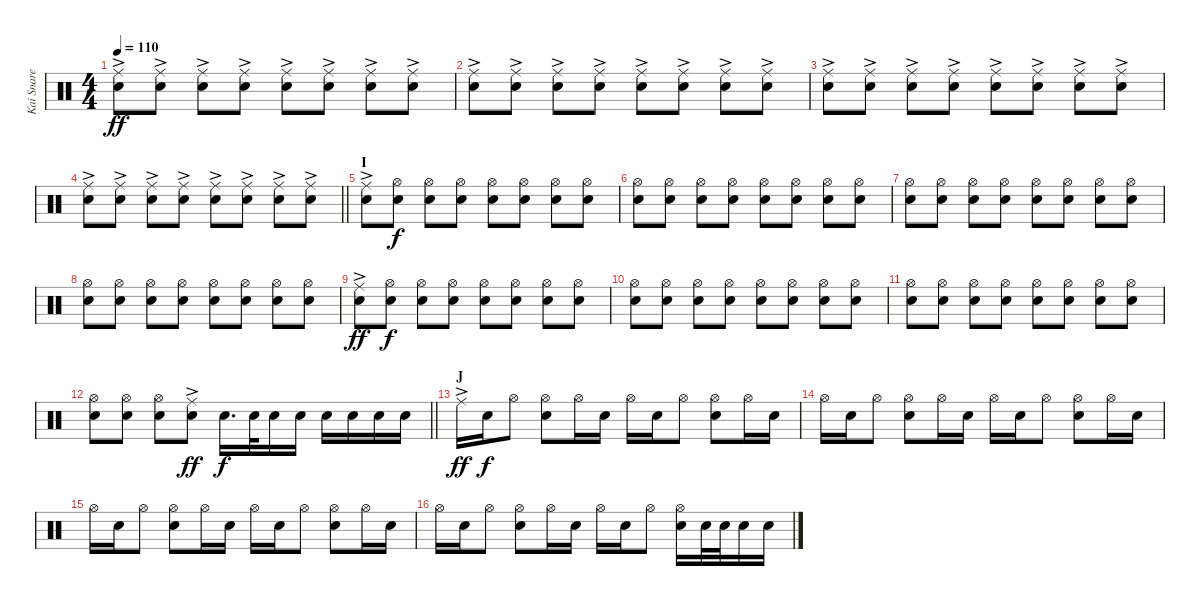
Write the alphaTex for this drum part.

\track ("Kai Snare" "Kai Snare") {instrument percussion}
\staff {score}
\articulation defaults
\ts (4 4)
\tempo 110
\clef neutral
\ks c
("Ride (middle)"{ac} "Snare (hit) 2").8{dy ff} ("Ride (middle)"{ac} "Snare (hit) 2").8 ("Ride (middle)"{ac} "Snare (hit) 2").8 ("Ride (middle)"{ac} "Snare (hit) 2").8 ("Ride (middle)"{ac} "Snare (hit) 2").8 ("Ride (middle)"{ac} "Snare (hit) 2").8 ("Ride (middle)"{ac} "Snare (hit) 2").8 ("Ride (middle)"{ac} "Snare (hit) 2").8 |
("Ride (middle)"{ac} "Snare (hit) 2").8 ("Ride (middle)"{ac} "Snare (hit) 2").8 ("Ride (middle)"{ac} "Snare (hit) 2").8 ("Ride (middle)"{ac} "Snare (hit) 2").8 ("Ride (middle)"{ac} "Snare (hit) 2").8 ("Ride (middle)"{ac} "Snare (hit) 2").8 ("Ride (middle)"{ac} "Snare (hit) 2").8 ("Ride (middle)"{ac} "Snare (hit) 2").8 |
("Ride (middle)"{ac} "Snare (hit) 2").8 ("Ride (middle)"{ac} "Snare (hit) 2").8 ("Ride (middle)"{ac} "Snare (hit) 2").8 ("Ride (middle)"{ac} "Snare (hit) 2").8 ("Ride (middle)"{ac} "Snare (hit) 2").8 ("Ride (middle)"{ac} "Snare (hit) 2").8 ("Ride (middle)"{ac} "Snare (hit) 2").8 ("Ride (middle)"{ac} "Snare (hit) 2").8 |
\barLineRight lightlight
("Ride (middle)"{ac} "Snare (hit) 2").8 ("Ride (middle)"{ac} "Snare (hit) 2").8 ("Ride (middle)"{ac} "Snare (hit) 2").8 ("Ride (middle)"{ac} "Snare (hit) 2").8 ("Ride (middle)"{ac} "Snare (hit) 2").8 ("Ride (middle)"{ac} "Snare (hit) 2").8 ("Ride (middle)"{ac} "Snare (hit) 2").8 ("Ride (middle)"{ac} "Snare (hit) 2").8 |
\section ("" "I")
("Ride (middle)"{ac} "Snare (hit) 2").8 ("Hi-Hat (open)" "Snare (hit) 2").8{dy f} ("Hi-Hat (open)" "Snare (hit) 2").8 ("Hi-Hat (open)" "Snare (hit) 2").8 ("Hi-Hat (open)" "Snare (hit) 2").8 ("Hi-Hat (open)" "Snare (hit) 2").8 ("Hi-Hat (open)" "Snare (hit) 2").8 ("Hi-Hat (open)" "Snare (hit) 2").8 |
("Hi-Hat (open)" "Snare (hit) 2").8 ("Hi-Hat (open)" "Snare (hit) 2").8 ("Hi-Hat (open)" "Snare (hit) 2").8 ("Hi-Hat (open)" "Snare (hit) 2").8 ("Hi-Hat (open)" "Snare (hit) 2").8 ("Hi-Hat (open)" "Snare (hit) 2").8 ("Hi-Hat (open)" "Snare (hit) 2").8 ("Hi-Hat (open)" "Snare (hit) 2").8 |
("Hi-Hat (open)" "Snare (hit) 2").8 ("Hi-Hat (open)" "Snare (hit) 2").8 ("Hi-Hat (open)" "Snare (hit) 2").8 ("Hi-Hat (open)" "Snare (hit) 2").8 ("Hi-Hat (open)" "Snare (hit) 2").8 ("Hi-Hat (open)" "Snare (hit) 2").8 ("Hi-Hat (open)" "Snare (hit) 2").8 ("Hi-Hat (open)" "Snare (hit) 2").8 |
("Hi-Hat (open)" "Snare (hit) 2").8 ("Hi-Hat (open)" "Snare (hit) 2").8 ("Hi-Hat (open)" "Snare (hit) 2").8 ("Hi-Hat (open)" "Snare (hit) 2").8 ("Hi-Hat (open)" "Snare (hit) 2").8 ("Hi-Hat (open)" "Snare (hit) 2").8 ("Hi-Hat (open)" "Snare (hit) 2").8 ("Hi-Hat (open)" "Snare (hit) 2").8 |
("Ride (middle)"{ac} "Snare (hit) 2").8{dy ff} ("Hi-Hat (open)" "Snare (hit) 2").8{dy f} ("Hi-Hat (open)" "Snare (hit) 2").8 ("Hi-Hat (open)" "Snare (hit) 2").8 ("Hi-Hat (open)" "Snare (hit) 2").8 ("Hi-Hat (open)" "Snare (hit) 2").8 ("Hi-Hat (open)" "Snare (hit) 2").8 ("Hi-Hat (open)" "Snare (hit) 2").8 |
("Hi-Hat (open)" "Snare (hit) 2").8 ("Hi-Hat (open)" "Snare (hit) 2").8 ("Hi-Hat (open)" "Snare (hit) 2").8 ("Hi-Hat (open)" "Snare (hit) 2").8 ("Hi-Hat (open)" "Snare (hit) 2").8 ("Hi-Hat (open)" "Snare (hit) 2").8 ("Hi-Hat (open)" "Snare (hit) 2").8 ("Hi-Hat (open)" "Snare (hit) 2").8 |
("Hi-Hat (open)" "Snare (hit) 2").8 ("Hi-Hat (open)" "Snare (hit) 2").8 ("Hi-Hat (open)" "Snare (hit) 2").8 ("Hi-Hat (open)" "Snare (hit) 2").8 ("Hi-Hat (open)" "Snare (hit) 2").8 ("Hi-Hat (open)" "Snare (hit) 2").8 ("Hi-Hat (open)" "Snare (hit) 2").8 ("Hi-Hat (open)" "Snare (hit) 2").8 |
\barLineRight lightlight
("Hi-Hat (open)" "Snare (hit) 2").8 ("Hi-Hat (open)" "Snare (hit) 2").8 ("Hi-Hat (open)" "Snare (hit) 2").8 ("Ride (middle)"{ac} "Snare (hit) 2").8{dy ff} "Snare (hit) 2".16{d dy f} "Snare (hit) 2".32 "Snare (hit) 2".16 "Snare (hit) 2".16 "Snare (hit) 2".16 "Snare (hit) 2".16 "Snare (hit) 2".16 "Snare (hit) 2".16 |
\section ("" "J")
"Ride (middle)"{ac}.16{dy ff} "Snare (hit) 2".16{dy f} "Hi-Hat (open)".8 ("Hi-Hat (open)" "Snare (hit) 2").8 "Hi-Hat (open)".16 "Snare (hit) 2".16 "Hi-Hat (open)".16 "Snare (hit) 2".16 "Hi-Hat (open)".8 ("Hi-Hat (open)" "Snare (hit) 2").8 "Hi-Hat (open)".16 "Snare (hit) 2".16 |
"Hi-Hat (open)".16 "Snare (hit) 2".16 "Hi-Hat (open)".8 ("Hi-Hat (open)" "Snare (hit) 2").8 "Hi-Hat (open)".16 "Snare (hit) 2".16 "Hi-Hat (open)".16 "Snare (hit) 2".16 "Hi-Hat (open)".8 ("Hi-Hat (open)" "Snare (hit) 2").8 "Hi-Hat (open)".16 "Snare (hit) 2".16 |
"Hi-Hat (open)".16 "Snare (hit) 2".16 "Hi-Hat (open)".8 ("Hi-Hat (open)" "Snare (hit) 2").8 "Hi-Hat (open)".16 "Snare (hit) 2".16 "Hi-Hat (open)".16 "Snare (hit) 2".16 "Hi-Hat (open)".8 ("Hi-Hat (open)" "Snare (hit) 2").8 "Hi-Hat (open)".16 "Snare (hit) 2".16 |
"Hi-Hat (open)".16 "Snare (hit) 2".16 "Hi-Hat (open)".8 ("Hi-Hat (open)" "Snare (hit) 2").8 "Hi-Hat (open)".16 "Snare (hit) 2".16 "Hi-Hat (open)".16 "Snare (hit) 2".16 "Hi-Hat (open)".8 ("Hi-Hat (open)" "Snare (hit) 2").16 "Snare (hit) 2".32 "Snare (hit) 2".32 "Snare (hit) 2".16 "Snare (hit) 2".16
